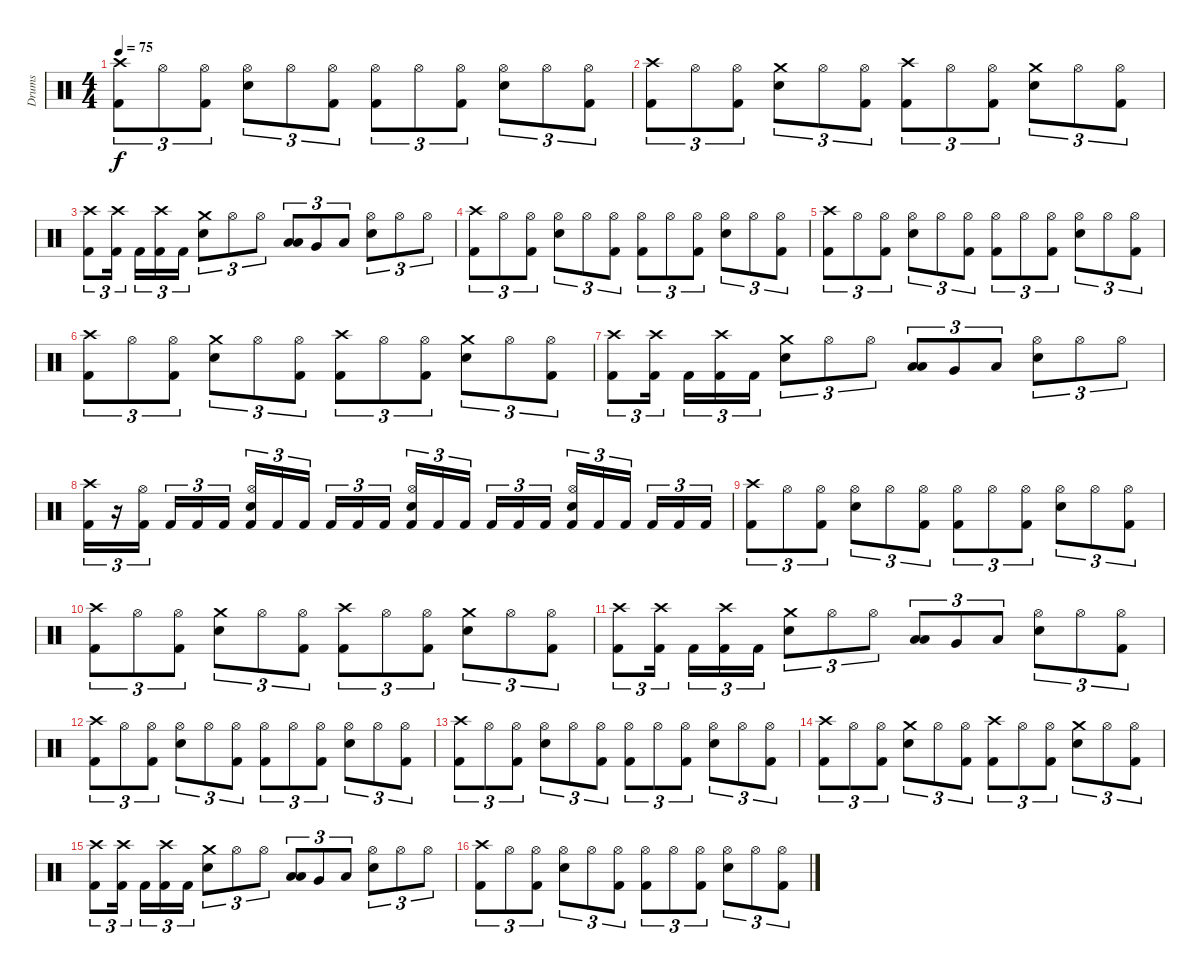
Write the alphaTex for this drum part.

\track ("Drums" "Drums") {instrument percussion}
\staff {score}
\articulation defaults
\ts (4 4)
\tempo 75
\clef neutral
\ks c
("Crash high (hit)" "Kick (hit) 2").8{tu (3 2) dy f} "Hi-Hat (open)".8{tu (3 2)} ("Hi-Hat (open)" "Kick (hit) 2").8{tu (3 2)} ("Hi-Hat (open)" "Electric Snare (hit)").8{tu (3 2)} "Hi-Hat (open)".8{tu (3 2)} ("Hi-Hat (open)" "Kick (hit) 2").8{tu (3 2)} ("Hi-Hat (open)" "Kick (hit) 2").8{tu (3 2)} "Hi-Hat (open)".8{tu (3 2)} ("Hi-Hat (open)" "Kick (hit) 2").8{tu (3 2)} ("Hi-Hat (open)" "Electric Snare (hit)").8{tu (3 2)} "Hi-Hat (open)".8{tu (3 2)} ("Hi-Hat (open)" "Kick (hit) 2").8{tu (3 2)} |
("Crash high (hit)" "Kick (hit) 2").8{tu (3 2)} "Hi-Hat (open)".8{tu (3 2)} ("Hi-Hat (open)" "Kick (hit) 2").8{tu (3 2)} ("Crash medium (hit)" "Electric Snare (hit)").8{tu (3 2)} "Hi-Hat (open)".8{tu (3 2)} ("Hi-Hat (open)" "Kick (hit) 2").8{tu (3 2)} ("Crash high (hit)" "Kick (hit) 2").8{tu (3 2)} "Hi-Hat (open)".8{tu (3 2)} ("Hi-Hat (open)" "Kick (hit) 2").8{tu (3 2)} ("Crash medium (hit)" "Electric Snare (hit)").8{tu (3 2)} "Hi-Hat (open)".8{tu (3 2)} ("Hi-Hat (open)" "Kick (hit) 2").8{tu (3 2)} |
("Crash high (hit)" "Kick (hit) 2").8{tu (3 2)} ("Crash high (hit)" "Kick (hit) 2").16{tu (3 2)} "Kick (hit) 2".16{tu (3 2)} ("Crash high (hit)" "Kick (hit) 2").16{tu (3 2)} "Kick (hit) 2".16{tu (3 2)} ("Crash medium (hit)" "Electric Snare (hit)").8{tu (3 2)} "Hi-Hat (open)".8{tu (3 2)} "Hi-Hat (open)".8{tu (3 2)} ("Low Tom (hit)" "Low Tom (hit)").8{tu (3 2) bu 60} "Very Low Tom (hit)".8{tu (3 2)} "Low Floor Tom (hit)".8{tu (3 2)} ("Hi-Hat (open)" "Electric Snare (hit)").8{tu (3 2)} "Hi-Hat (open)".8{tu (3 2)} "Hi-Hat (open)".8{tu (3 2)} |
("Crash high (hit)" "Kick (hit) 2").8{tu (3 2)} "Hi-Hat (open)".8{tu (3 2)} ("Hi-Hat (open)" "Kick (hit) 2").8{tu (3 2)} ("Hi-Hat (open)" "Electric Snare (hit)").8{tu (3 2)} "Hi-Hat (open)".8{tu (3 2)} ("Hi-Hat (open)" "Kick (hit) 2").8{tu (3 2)} ("Hi-Hat (open)" "Kick (hit) 2").8{tu (3 2)} "Hi-Hat (open)".8{tu (3 2)} ("Hi-Hat (open)" "Kick (hit) 2").8{tu (3 2)} ("Hi-Hat (open)" "Electric Snare (hit)").8{tu (3 2)} "Hi-Hat (open)".8{tu (3 2)} ("Hi-Hat (open)" "Kick (hit) 2").8{tu (3 2)} |
("Crash high (hit)" "Kick (hit) 2").8{tu (3 2)} "Hi-Hat (open)".8{tu (3 2)} ("Hi-Hat (open)" "Kick (hit) 2").8{tu (3 2)} ("Hi-Hat (open)" "Electric Snare (hit)").8{tu (3 2)} "Hi-Hat (open)".8{tu (3 2)} ("Hi-Hat (open)" "Kick (hit) 2").8{tu (3 2)} ("Hi-Hat (open)" "Kick (hit) 2").8{tu (3 2)} "Hi-Hat (open)".8{tu (3 2)} ("Hi-Hat (open)" "Kick (hit) 2").8{tu (3 2)} ("Hi-Hat (open)" "Electric Snare (hit)").8{tu (3 2)} "Hi-Hat (open)".8{tu (3 2)} ("Hi-Hat (open)" "Kick (hit) 2").8{tu (3 2)} |
("Crash high (hit)" "Kick (hit) 2").8{tu (3 2)} "Hi-Hat (open)".8{tu (3 2)} ("Hi-Hat (open)" "Kick (hit) 2").8{tu (3 2)} ("Crash medium (hit)" "Electric Snare (hit)").8{tu (3 2)} "Hi-Hat (open)".8{tu (3 2)} ("Hi-Hat (open)" "Kick (hit) 2").8{tu (3 2)} ("Crash high (hit)" "Kick (hit) 2").8{tu (3 2)} "Hi-Hat (open)".8{tu (3 2)} ("Hi-Hat (open)" "Kick (hit) 2").8{tu (3 2)} ("Crash medium (hit)" "Electric Snare (hit)").8{tu (3 2)} "Hi-Hat (open)".8{tu (3 2)} ("Hi-Hat (open)" "Kick (hit) 2").8{tu (3 2)} |
("Crash high (hit)" "Kick (hit) 2").8{tu (3 2)} ("Crash high (hit)" "Kick (hit) 2").16{tu (3 2)} "Kick (hit) 2".16{tu (3 2)} ("Crash high (hit)" "Kick (hit) 2").16{tu (3 2)} "Kick (hit) 2".16{tu (3 2)} ("Crash medium (hit)" "Electric Snare (hit)").8{tu (3 2)} "Hi-Hat (open)".8{tu (3 2)} "Hi-Hat (open)".8{tu (3 2)} ("Low Tom (hit)" "Low Tom (hit)").8{tu (3 2) bu 60} "Very Low Tom (hit)".8{tu (3 2)} "Low Floor Tom (hit)".8{tu (3 2)} ("Hi-Hat (open)" "Electric Snare (hit)").8{tu (3 2)} "Hi-Hat (open)".8{tu (3 2)} "Hi-Hat (open)".8{tu (3 2)} |
("Crash high (hit)" "Kick (hit) 2").16{tu (3 2)} r.16{tu (3 2)} ("Hi-Hat (open)" "Kick (hit) 2").16{tu (3 2)} "Kick (hit) 2".16{tu (3 2)} "Kick (hit) 2".16{tu (3 2)} "Kick (hit) 2".16{tu (3 2)} ("Hi-Hat (open)" "Electric Snare (hit)" "Kick (hit) 2").16{tu (3 2)} "Kick (hit) 2".16{tu (3 2)} "Kick (hit) 2".16{tu (3 2)} "Kick (hit) 2".16{tu (3 2)} "Kick (hit) 2".16{tu (3 2)} "Kick (hit) 2".16{tu (3 2)} ("Hi-Hat (open)" "Electric Snare (hit)" "Kick (hit) 2").16{tu (3 2)} "Kick (hit) 2".16{tu (3 2)} "Kick (hit) 2".16{tu (3 2)} "Kick (hit) 2".16{tu (3 2)} "Kick (hit) 2".16{tu (3 2)} "Kick (hit) 2".16{tu (3 2)} ("Hi-Hat (open)" "Electric Snare (hit)" "Kick (hit) 2").16{tu (3 2)} "Kick (hit) 2".16{tu (3 2)} "Kick (hit) 2".16{tu (3 2)} "Kick (hit) 2".16{tu (3 2)} "Kick (hit) 2".16{tu (3 2)} "Kick (hit) 2".16{tu (3 2)} |
("Crash high (hit)" "Kick (hit) 2").8{tu (3 2)} "Hi-Hat (open)".8{tu (3 2)} ("Hi-Hat (open)" "Kick (hit) 2").8{tu (3 2)} ("Hi-Hat (open)" "Electric Snare (hit)").8{tu (3 2)} "Hi-Hat (open)".8{tu (3 2)} ("Hi-Hat (open)" "Kick (hit) 2").8{tu (3 2)} ("Hi-Hat (open)" "Kick (hit) 2").8{tu (3 2)} "Hi-Hat (open)".8{tu (3 2)} ("Hi-Hat (open)" "Kick (hit) 2").8{tu (3 2)} ("Hi-Hat (open)" "Electric Snare (hit)").8{tu (3 2)} "Hi-Hat (open)".8{tu (3 2)} ("Hi-Hat (open)" "Kick (hit) 2").8{tu (3 2)} |
("Crash high (hit)" "Kick (hit) 2").8{tu (3 2)} "Hi-Hat (open)".8{tu (3 2)} ("Hi-Hat (open)" "Kick (hit) 2").8{tu (3 2)} ("Crash medium (hit)" "Electric Snare (hit)").8{tu (3 2)} "Hi-Hat (open)".8{tu (3 2)} ("Hi-Hat (open)" "Kick (hit) 2").8{tu (3 2)} ("Crash high (hit)" "Kick (hit) 2").8{tu (3 2)} "Hi-Hat (open)".8{tu (3 2)} ("Hi-Hat (open)" "Kick (hit) 2").8{tu (3 2)} ("Crash medium (hit)" "Electric Snare (hit)").8{tu (3 2)} "Hi-Hat (open)".8{tu (3 2)} ("Hi-Hat (open)" "Kick (hit) 2").8{tu (3 2)} |
("Crash high (hit)" "Kick (hit) 2").8{tu (3 2)} ("Crash high (hit)" "Kick (hit) 2").16{tu (3 2)} "Kick (hit) 2".16{tu (3 2)} ("Crash high (hit)" "Kick (hit) 2").16{tu (3 2)} "Kick (hit) 2".16{tu (3 2)} ("Crash medium (hit)" "Electric Snare (hit)").8{tu (3 2)} "Hi-Hat (open)".8{tu (3 2)} "Hi-Hat (open)".8{tu (3 2)} ("Low Tom (hit)" "Low Tom (hit)").8{tu (3 2) bu 60} "Very Low Tom (hit)".8{tu (3 2)} "Low Floor Tom (hit)".8{tu (3 2)} ("Hi-Hat (open)" "Electric Snare (hit)").8{tu (3 2)} "Hi-Hat (open)".8{tu (3 2)} ("Hi-Hat (open)" "Kick (hit) 2").8{tu (3 2)} |
("Crash high (hit)" "Kick (hit) 2").8{tu (3 2)} "Hi-Hat (open)".8{tu (3 2)} ("Hi-Hat (open)" "Kick (hit) 2").8{tu (3 2)} ("Hi-Hat (open)" "Electric Snare (hit)").8{tu (3 2)} "Hi-Hat (open)".8{tu (3 2)} ("Hi-Hat (open)" "Kick (hit) 2").8{tu (3 2)} ("Hi-Hat (open)" "Kick (hit) 2").8{tu (3 2)} "Hi-Hat (open)".8{tu (3 2)} ("Hi-Hat (open)" "Kick (hit) 2").8{tu (3 2)} ("Hi-Hat (open)" "Electric Snare (hit)").8{tu (3 2)} "Hi-Hat (open)".8{tu (3 2)} ("Hi-Hat (open)" "Kick (hit) 2").8{tu (3 2)} |
("Crash high (hit)" "Kick (hit) 2").8{tu (3 2)} "Hi-Hat (open)".8{tu (3 2)} ("Hi-Hat (open)" "Kick (hit) 2").8{tu (3 2)} ("Hi-Hat (open)" "Electric Snare (hit)").8{tu (3 2)} "Hi-Hat (open)".8{tu (3 2)} ("Hi-Hat (open)" "Kick (hit) 2").8{tu (3 2)} ("Hi-Hat (open)" "Kick (hit) 2").8{tu (3 2)} "Hi-Hat (open)".8{tu (3 2)} ("Hi-Hat (open)" "Kick (hit) 2").8{tu (3 2)} ("Hi-Hat (open)" "Electric Snare (hit)").8{tu (3 2)} "Hi-Hat (open)".8{tu (3 2)} ("Hi-Hat (open)" "Kick (hit) 2").8{tu (3 2)} |
("Crash high (hit)" "Kick (hit) 2").8{tu (3 2)} "Hi-Hat (open)".8{tu (3 2)} ("Hi-Hat (open)" "Kick (hit) 2").8{tu (3 2)} ("Crash medium (hit)" "Electric Snare (hit)").8{tu (3 2)} "Hi-Hat (open)".8{tu (3 2)} ("Hi-Hat (open)" "Kick (hit) 2").8{tu (3 2)} ("Crash high (hit)" "Kick (hit) 2").8{tu (3 2)} "Hi-Hat (open)".8{tu (3 2)} ("Hi-Hat (open)" "Kick (hit) 2").8{tu (3 2)} ("Crash medium (hit)" "Electric Snare (hit)").8{tu (3 2)} "Hi-Hat (open)".8{tu (3 2)} ("Hi-Hat (open)" "Kick (hit) 2").8{tu (3 2)} |
("Crash high (hit)" "Kick (hit) 2").8{tu (3 2)} ("Crash high (hit)" "Kick (hit) 2").16{tu (3 2)} "Kick (hit) 2".16{tu (3 2)} ("Crash high (hit)" "Kick (hit) 2").16{tu (3 2)} "Kick (hit) 2".16{tu (3 2)} ("Crash medium (hit)" "Electric Snare (hit)").8{tu (3 2)} "Hi-Hat (open)".8{tu (3 2)} "Hi-Hat (open)".8{tu (3 2)} ("Low Tom (hit)" "Low Tom (hit)").8{tu (3 2) bu 60} "Very Low Tom (hit)".8{tu (3 2)} "Low Floor Tom (hit)".8{tu (3 2)} ("Hi-Hat (open)" "Electric Snare (hit)").8{tu (3 2)} "Hi-Hat (open)".8{tu (3 2)} "Hi-Hat (open)".8{tu (3 2)} |
("Crash high (hit)" "Kick (hit) 2").8{tu (3 2)} "Hi-Hat (open)".8{tu (3 2)} ("Hi-Hat (open)" "Kick (hit) 2").8{tu (3 2)} ("Hi-Hat (open)" "Electric Snare (hit)").8{tu (3 2)} "Hi-Hat (open)".8{tu (3 2)} ("Hi-Hat (open)" "Kick (hit) 2").8{tu (3 2)} ("Hi-Hat (open)" "Kick (hit) 2").8{tu (3 2)} "Hi-Hat (open)".8{tu (3 2)} ("Hi-Hat (open)" "Kick (hit) 2").8{tu (3 2)} ("Hi-Hat (open)" "Electric Snare (hit)").8{tu (3 2)} "Hi-Hat (open)".8{tu (3 2)} ("Hi-Hat (open)" "Kick (hit) 2").8{tu (3 2)}
